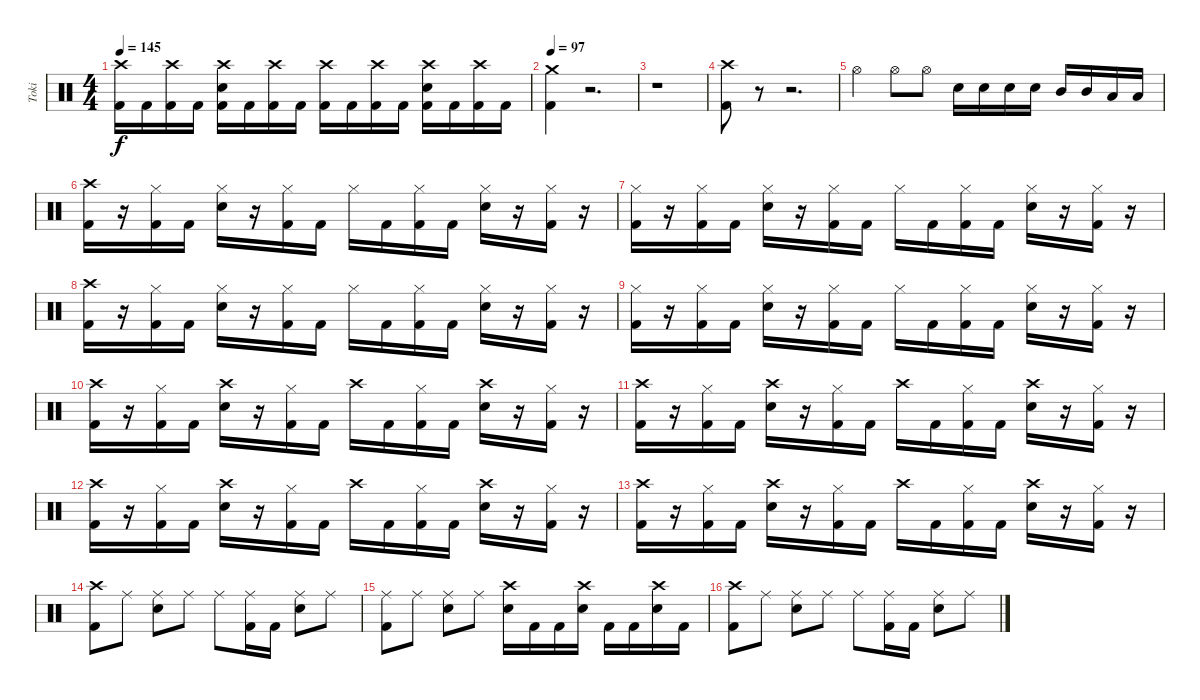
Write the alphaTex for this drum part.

\track ("Toki" "Toki") {instrument percussion}
\staff {score}
\articulation defaults
\ts (4 4)
\tempo 145
\clef neutral
\ks c
("Crash high (hit)" "Kick (hit) 2").16{dy f} "Kick (hit) 2".16 ("Crash high (hit)" "Kick (hit) 2").16 "Kick (hit) 2".16 ("Crash high (hit)" "Electric Snare (hit)" "Kick (hit) 2").16 "Kick (hit) 2".16 ("Crash high (hit)" "Kick (hit) 2").16 "Kick (hit) 2".16 ("Crash high (hit)" "Kick (hit) 2").16 "Kick (hit) 2".16 ("Crash high (hit)" "Kick (hit) 2").16 "Kick (hit) 2".16 ("Crash high (hit)" "Electric Snare (hit)" "Kick (hit) 2").16 "Kick (hit) 2".16 ("Crash high (hit)" "Kick (hit) 2").16 "Kick (hit) 2".16 |
\section ("" "")
\tempo 97
("Crash medium (hit)" "Kick (hit) 2").4 r.2{d} |
r.1 |
("Crash high (hit)" "Kick (hit) 2").8 r.8 r.2{d} |
"Hi-Hat (open)".4 "Hi-Hat (open)".8 "Hi-Hat (open)".8 "Electric Snare (hit)".16 "Electric Snare (hit)".16 "Electric Snare (hit)".16 "Electric Snare (hit)".16 "Mid Tom (hit)".16 "Mid Tom (hit)".16 "Low Tom (hit)".16 "Low Tom (hit)".16 |
("Crash high (hit)" "Kick (hit) 2").16 r.16 ("Hi-Hat (closed)" "Kick (hit) 2").16 "Kick (hit) 2".16 ("Hi-Hat (closed)" "Electric Snare (hit)").16 r.16 ("Hi-Hat (closed)" "Kick (hit) 2").16 "Kick (hit) 2".16 "Hi-Hat (closed)".16 "Kick (hit) 2".16 ("Hi-Hat (closed)" "Kick (hit) 2").16 "Kick (hit) 2".16 ("Hi-Hat (closed)" "Electric Snare (hit)").16 r.16 ("Hi-Hat (closed)" "Kick (hit) 2").16 r.16 |
("Hi-Hat (closed)" "Kick (hit) 2").16 r.16 ("Hi-Hat (closed)" "Kick (hit) 2").16 "Kick (hit) 2".16 ("Hi-Hat (closed)" "Electric Snare (hit)").16 r.16 ("Hi-Hat (closed)" "Kick (hit) 2").16 "Kick (hit) 2".16 "Hi-Hat (closed)".16 "Kick (hit) 2".16 ("Hi-Hat (closed)" "Kick (hit) 2").16 "Kick (hit) 2".16 ("Hi-Hat (closed)" "Electric Snare (hit)").16 r.16 ("Hi-Hat (closed)" "Kick (hit) 2").16 r.16 |
("Crash high (hit)" "Kick (hit) 2").16 r.16 ("Hi-Hat (closed)" "Kick (hit) 2").16 "Kick (hit) 2".16 ("Hi-Hat (closed)" "Electric Snare (hit)").16 r.16 ("Hi-Hat (closed)" "Kick (hit) 2").16 "Kick (hit) 2".16 "Hi-Hat (closed)".16 "Kick (hit) 2".16 ("Hi-Hat (closed)" "Kick (hit) 2").16 "Kick (hit) 2".16 ("Hi-Hat (closed)" "Electric Snare (hit)").16 r.16 ("Hi-Hat (closed)" "Kick (hit) 2").16 r.16 |
("Hi-Hat (closed)" "Kick (hit) 2").16 r.16 ("Hi-Hat (closed)" "Kick (hit) 2").16 "Kick (hit) 2".16 ("Hi-Hat (closed)" "Electric Snare (hit)").16 r.16 ("Hi-Hat (closed)" "Kick (hit) 2").16 "Kick (hit) 2".16 "Hi-Hat (closed)".16 "Kick (hit) 2".16 ("Hi-Hat (closed)" "Kick (hit) 2").16 "Kick (hit) 2".16 ("Hi-Hat (closed)" "Electric Snare (hit)").16 r.16 ("Hi-Hat (closed)" "Kick (hit) 2").16 r.16 |
("Crash high (hit)" "Kick (hit) 2").16 r.16 ("Hi-Hat (closed)" "Kick (hit) 2").16 "Kick (hit) 2".16 ("Crash high (hit)" "Electric Snare (hit)").16 r.16 ("Hi-Hat (closed)" "Kick (hit) 2").16 "Kick (hit) 2".16 "Crash high (hit)".16 "Kick (hit) 2".16 ("Hi-Hat (closed)" "Kick (hit) 2").16 "Kick (hit) 2".16 ("Crash high (hit)" "Electric Snare (hit)").16 r.16 ("Hi-Hat (closed)" "Kick (hit) 2").16 r.16 |
("Crash high (hit)" "Kick (hit) 2").16 r.16 ("Hi-Hat (closed)" "Kick (hit) 2").16 "Kick (hit) 2".16 ("Crash high (hit)" "Electric Snare (hit)").16 r.16 ("Hi-Hat (closed)" "Kick (hit) 2").16 "Kick (hit) 2".16 "Crash high (hit)".16 "Kick (hit) 2".16 ("Hi-Hat (closed)" "Kick (hit) 2").16 "Kick (hit) 2".16 ("Crash high (hit)" "Electric Snare (hit)").16 r.16 ("Hi-Hat (closed)" "Kick (hit) 2").16 r.16 |
("Crash high (hit)" "Kick (hit) 2").16 r.16 ("Hi-Hat (closed)" "Kick (hit) 2").16 "Kick (hit) 2".16 ("Crash high (hit)" "Electric Snare (hit)").16 r.16 ("Hi-Hat (closed)" "Kick (hit) 2").16 "Kick (hit) 2".16 "Crash high (hit)".16 "Kick (hit) 2".16 ("Hi-Hat (closed)" "Kick (hit) 2").16 "Kick (hit) 2".16 ("Crash high (hit)" "Electric Snare (hit)").16 r.16 ("Hi-Hat (closed)" "Kick (hit) 2").16 r.16 |
("Crash high (hit)" "Kick (hit) 2").16 r.16 ("Hi-Hat (closed)" "Kick (hit) 2").16 "Kick (hit) 2".16 ("Crash high (hit)" "Electric Snare (hit)").16 r.16 ("Hi-Hat (closed)" "Kick (hit) 2").16 "Kick (hit) 2".16 "Crash high (hit)".16 "Kick (hit) 2".16 ("Hi-Hat (closed)" "Kick (hit) 2").16 "Kick (hit) 2".16 ("Crash high (hit)" "Electric Snare (hit)").16 r.16 ("Hi-Hat (closed)" "Kick (hit) 2").16 r.16 |
\section ("" "")
("Crash high (hit)" "Kick (hit) 2").8 "Ride (middle)".8 ("Ride (middle)" "Electric Snare (hit)").8 "Ride (middle)".8 "Ride (middle)".8 ("Ride (middle)" "Kick (hit) 2").16 "Kick (hit) 2".16 ("Ride (middle)" "Electric Snare (hit)").8 "Ride (middle)".8 |
("Ride (middle)" "Kick (hit) 2").8 "Ride (middle)".8 ("Ride (middle)" "Electric Snare (hit)").8 "Ride (middle)".8 ("Crash high (hit)" "Electric Snare (hit)").16 "Kick (hit) 2".16 "Kick (hit) 2".16 ("Crash high (hit)" "Electric Snare (hit)").16 "Kick (hit) 2".16 "Kick (hit) 2".16 ("Crash high (hit)" "Electric Snare (hit)").16 "Kick (hit) 2".16 |
("Crash high (hit)" "Kick (hit) 2").8 "Ride (middle)".8 ("Ride (middle)" "Electric Snare (hit)").8 "Ride (middle)".8 "Ride (middle)".8 ("Ride (middle)" "Kick (hit) 2").16 "Kick (hit) 2".16 ("Ride (middle)" "Electric Snare (hit)").8 "Ride (middle)".8
